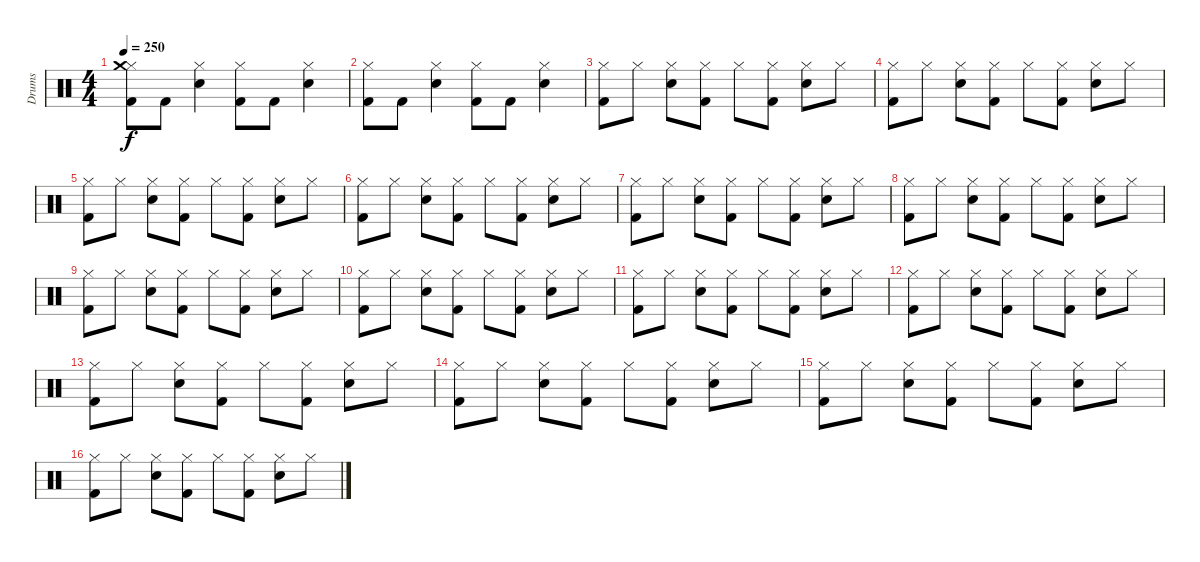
\track ("Drums" "Drums") {instrument percussion}
\staff {score}
\articulation defaults
\ts (4 4)
\tempo 250
\clef neutral
\ks c
("Kick (hit) 2" "Hi-Hat (closed)" "Crash medium (hit)").8{dy f} "Kick (hit) 2".8 ("Snare (hit) 2" "Hi-Hat (closed)").4 ("Kick (hit) 2" "Hi-Hat (closed)").8 "Kick (hit) 2".8 ("Snare (hit) 2" "Hi-Hat (closed)").4 |
("Kick (hit) 2" "Hi-Hat (closed)").8 "Kick (hit) 2".8 ("Snare (hit) 2" "Hi-Hat (closed)").4 ("Kick (hit) 2" "Hi-Hat (closed)").8 "Kick (hit) 2".8 ("Snare (hit) 2" "Hi-Hat (closed)").4 |
("Kick (hit) 2" "Hi-Hat (closed)").8 "Hi-Hat (closed)".8 ("Snare (hit) 2" "Hi-Hat (closed)").8 ("Kick (hit) 2" "Hi-Hat (closed)").8 "Hi-Hat (closed)".8 ("Kick (hit) 2" "Hi-Hat (closed)").8 ("Snare (hit) 2" "Hi-Hat (closed)").8 "Hi-Hat (closed)".8 |
("Kick (hit) 2" "Hi-Hat (closed)").8 "Hi-Hat (closed)".8 ("Snare (hit) 2" "Hi-Hat (closed)").8 ("Kick (hit) 2" "Hi-Hat (closed)").8 "Hi-Hat (closed)".8 ("Kick (hit) 2" "Hi-Hat (closed)").8 ("Snare (hit) 2" "Hi-Hat (closed)").8 "Hi-Hat (closed)".8 |
("Kick (hit) 2" "Hi-Hat (closed)").8 "Hi-Hat (closed)".8 ("Snare (hit) 2" "Hi-Hat (closed)").8 ("Kick (hit) 2" "Hi-Hat (closed)").8 "Hi-Hat (closed)".8 ("Kick (hit) 2" "Hi-Hat (closed)").8 ("Snare (hit) 2" "Hi-Hat (closed)").8 "Hi-Hat (closed)".8 |
("Kick (hit) 2" "Hi-Hat (closed)").8 "Hi-Hat (closed)".8 ("Snare (hit) 2" "Hi-Hat (closed)").8 ("Kick (hit) 2" "Hi-Hat (closed)").8 "Hi-Hat (closed)".8 ("Kick (hit) 2" "Hi-Hat (closed)").8 ("Snare (hit) 2" "Hi-Hat (closed)").8 "Hi-Hat (closed)".8 |
("Kick (hit) 2" "Hi-Hat (closed)").8 "Hi-Hat (closed)".8 ("Snare (hit) 2" "Hi-Hat (closed)").8 ("Kick (hit) 2" "Hi-Hat (closed)").8 "Hi-Hat (closed)".8 ("Kick (hit) 2" "Hi-Hat (closed)").8 ("Snare (hit) 2" "Hi-Hat (closed)").8 "Hi-Hat (closed)".8 |
("Kick (hit) 2" "Hi-Hat (closed)").8 "Hi-Hat (closed)".8 ("Snare (hit) 2" "Hi-Hat (closed)").8 ("Kick (hit) 2" "Hi-Hat (closed)").8 "Hi-Hat (closed)".8 ("Kick (hit) 2" "Hi-Hat (closed)").8 ("Snare (hit) 2" "Hi-Hat (closed)").8 "Hi-Hat (closed)".8 |
("Kick (hit) 2" "Hi-Hat (closed)").8 "Hi-Hat (closed)".8 ("Snare (hit) 2" "Hi-Hat (closed)").8 ("Kick (hit) 2" "Hi-Hat (closed)").8 "Hi-Hat (closed)".8 ("Kick (hit) 2" "Hi-Hat (closed)").8 ("Snare (hit) 2" "Hi-Hat (closed)").8 "Hi-Hat (closed)".8 |
("Kick (hit) 2" "Hi-Hat (closed)").8 "Hi-Hat (closed)".8 ("Snare (hit) 2" "Hi-Hat (closed)").8 ("Kick (hit) 2" "Hi-Hat (closed)").8 "Hi-Hat (closed)".8 ("Kick (hit) 2" "Hi-Hat (closed)").8 ("Snare (hit) 2" "Hi-Hat (closed)").8 "Hi-Hat (closed)".8 |
("Kick (hit) 2" "Hi-Hat (closed)").8 "Hi-Hat (closed)".8 ("Snare (hit) 2" "Hi-Hat (closed)").8 ("Kick (hit) 2" "Hi-Hat (closed)").8 "Hi-Hat (closed)".8 ("Kick (hit) 2" "Hi-Hat (closed)").8 ("Snare (hit) 2" "Hi-Hat (closed)").8 "Hi-Hat (closed)".8 |
("Kick (hit) 2" "Hi-Hat (closed)").8 "Hi-Hat (closed)".8 ("Snare (hit) 2" "Hi-Hat (closed)").8 ("Kick (hit) 2" "Hi-Hat (closed)").8 "Hi-Hat (closed)".8 ("Kick (hit) 2" "Hi-Hat (closed)").8 ("Snare (hit) 2" "Hi-Hat (closed)").8 "Hi-Hat (closed)".8 |
("Kick (hit) 2" "Hi-Hat (closed)").8 "Hi-Hat (closed)".8 ("Snare (hit) 2" "Hi-Hat (closed)").8 ("Kick (hit) 2" "Hi-Hat (closed)").8 "Hi-Hat (closed)".8 ("Kick (hit) 2" "Hi-Hat (closed)").8 ("Snare (hit) 2" "Hi-Hat (closed)").8 "Hi-Hat (closed)".8 |
("Kick (hit) 2" "Hi-Hat (closed)").8 "Hi-Hat (closed)".8 ("Snare (hit) 2" "Hi-Hat (closed)").8 ("Kick (hit) 2" "Hi-Hat (closed)").8 "Hi-Hat (closed)".8 ("Kick (hit) 2" "Hi-Hat (closed)").8 ("Snare (hit) 2" "Hi-Hat (closed)").8 "Hi-Hat (closed)".8 |
("Kick (hit) 2" "Hi-Hat (closed)").8 "Hi-Hat (closed)".8 ("Snare (hit) 2" "Hi-Hat (closed)").8 ("Kick (hit) 2" "Hi-Hat (closed)").8 "Hi-Hat (closed)".8 ("Kick (hit) 2" "Hi-Hat (closed)").8 ("Snare (hit) 2" "Hi-Hat (closed)").8 "Hi-Hat (closed)".8 |
("Kick (hit) 2" "Hi-Hat (closed)").8 "Hi-Hat (closed)".8 ("Snare (hit) 2" "Hi-Hat (closed)").8 ("Kick (hit) 2" "Hi-Hat (closed)").8 "Hi-Hat (closed)".8 ("Kick (hit) 2" "Hi-Hat (closed)").8 ("Snare (hit) 2" "Hi-Hat (closed)").8 "Hi-Hat (closed)".8
